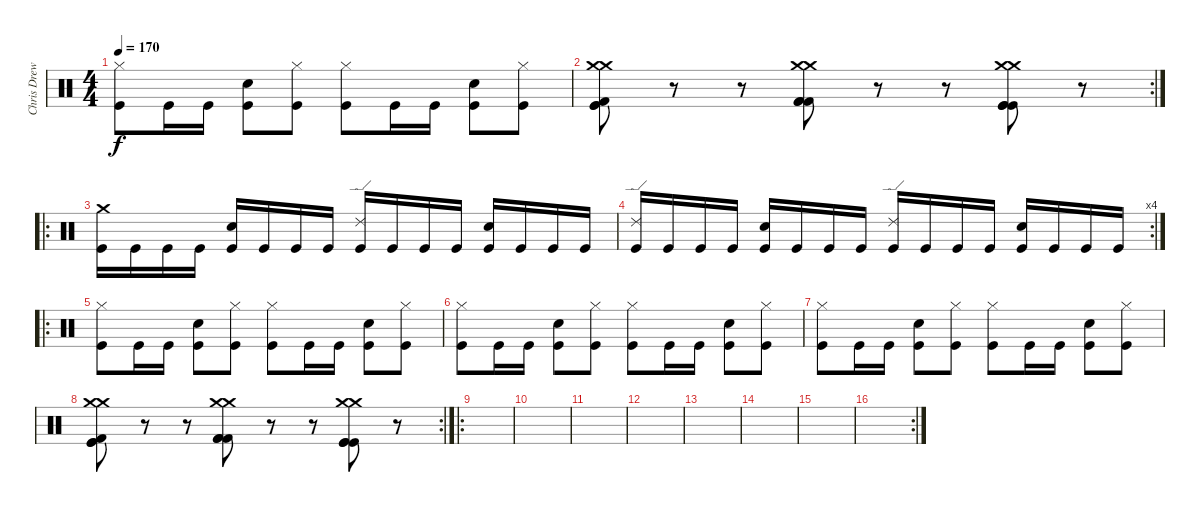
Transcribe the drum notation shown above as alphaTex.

\track ("Chris Drews- Drums" "Chris Drew") {instrument percussion}
\staff {score}
\articulation defaults
\ts (4 4)
\tempo 170
\clef neutral
\ks c
("Kick (hit)" "Hi-Hat (closed)").8{dy f} "Kick (hit)".16 "Kick (hit)".16 ("Kick (hit)" "Snare (hit) 2").8 ("Kick (hit)" "Hi-Hat (closed)").8 ("Kick (hit)" "Hi-Hat (closed)").8 "Kick (hit)".16 "Kick (hit)".16 ("Kick (hit)" "Snare (hit) 2").8 ("Kick (hit)" "Hi-Hat (closed)").8 |
\rc 2
("Kick (hit)" "Kick (hit)" "Kick (hit) 2" "Crash medium (hit)" "Crash medium (hit)").8{balance 0} r.8 r.8 ("Kick (hit) 2" "Kick (hit) 2" "Kick (hit) 2" "Crash medium (hit)" "Crash medium (hit)").8{balance 16} r.8 r.8 ("Kick (hit)" "Kick (hit)" "Kick (hit)" "Crash medium (hit)" "Crash medium (hit)").8{balance 0} r.8 |
\ro
("Kick (hit)" "Crash medium (hit)").16{balance 8} "Kick (hit)".16 "Kick (hit)".16 "Kick (hit)".16 ("Kick (hit)" "Snare (hit) 2").16 "Kick (hit)".16 "Kick (hit)".16 "Kick (hit)".16 ("Kick (hit)" "Ride (edge) 2").16 "Kick (hit)".16 "Kick (hit)".16 "Kick (hit)".16 ("Kick (hit)" "Snare (hit) 2").16 "Kick (hit)".16 "Kick (hit)".16 "Kick (hit)".16 |
\rc 4
("Kick (hit)" "Ride (edge) 2").16 "Kick (hit)".16 "Kick (hit)".16 "Kick (hit)".16 ("Kick (hit)" "Snare (hit) 2").16 "Kick (hit)".16 "Kick (hit)".16 "Kick (hit)".16 ("Kick (hit)" "Ride (edge) 2").16 "Kick (hit)".16 "Kick (hit)".16 "Kick (hit)".16 ("Kick (hit)" "Snare (hit) 2").16 "Kick (hit)".16 "Kick (hit)".16 "Kick (hit)".16 |
\ro
("Kick (hit)" "Hi-Hat (closed)").8{balance 8} "Kick (hit)".16 "Kick (hit)".16 ("Kick (hit)" "Snare (hit) 2").8 ("Kick (hit)" "Hi-Hat (closed)").8 ("Kick (hit)" "Hi-Hat (closed)").8 "Kick (hit)".16 "Kick (hit)".16 ("Kick (hit)" "Snare (hit) 2").8 ("Kick (hit)" "Hi-Hat (closed)").8 |
("Kick (hit)" "Hi-Hat (closed)").8 "Kick (hit)".16 "Kick (hit)".16 ("Kick (hit)" "Snare (hit) 2").8 ("Kick (hit)" "Hi-Hat (closed)").8 ("Kick (hit)" "Hi-Hat (closed)").8 "Kick (hit)".16 "Kick (hit)".16 ("Kick (hit)" "Snare (hit) 2").8 ("Kick (hit)" "Hi-Hat (closed)").8 |
("Kick (hit)" "Hi-Hat (closed)").8 "Kick (hit)".16 "Kick (hit)".16 ("Kick (hit)" "Snare (hit) 2").8 ("Kick (hit)" "Hi-Hat (closed)").8 ("Kick (hit)" "Hi-Hat (closed)").8 "Kick (hit)".16 "Kick (hit)".16 ("Kick (hit)" "Snare (hit) 2").8 ("Kick (hit)" "Hi-Hat (closed)").8 |
\rc 2
("Kick (hit)" "Kick (hit)" "Kick (hit) 2" "Crash medium (hit)" "Crash medium (hit)").8{balance 0} r.8 r.8 ("Kick (hit) 2" "Kick (hit) 2" "Kick (hit) 2" "Crash medium (hit)" "Crash medium (hit)").8{balance 16} r.8 r.8 ("Kick (hit)" "Kick (hit)" "Kick (hit)" "Crash medium (hit)" "Crash medium (hit)").8{balance 0} r.8 |
\ro
|
|
|
|
|
|
|
\rc 2
